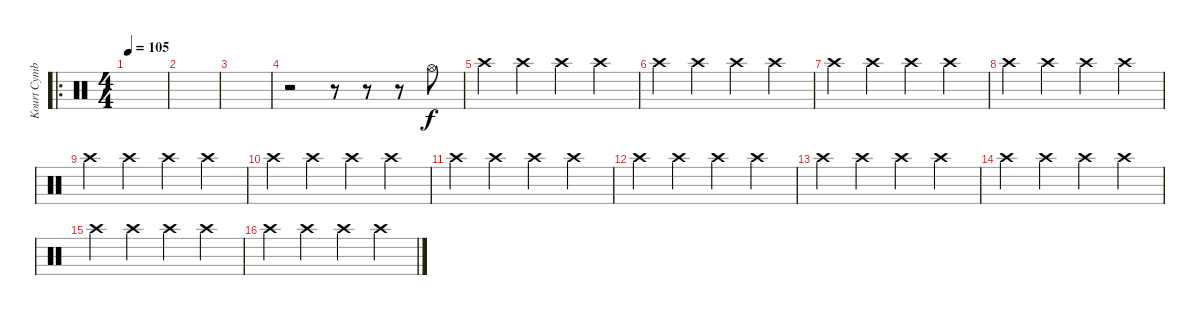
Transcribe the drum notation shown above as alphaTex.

\track ("Kourt Cymbales" "Kourt Cymb") {instrument percussion}
\staff {score}
\articulation defaults
\ro
\ts (4 4)
\tempo 105
\clef neutral
\ks c
|
|
|
r.2 r.8 r.8 r.8 "Hi-Hat (open)".8 |
"Crash high (hit)".4 "Crash high (hit)".4 "Crash high (hit)".4 "Crash high (hit)".4 |
"Crash high (hit)".4 "Crash high (hit)".4 "Crash high (hit)".4 "Crash high (hit)".4 |
"Crash high (hit)".4 "Crash high (hit)".4 "Crash high (hit)".4 "Crash high (hit)".4 |
"Crash high (hit)".4 "Crash high (hit)".4 "Crash high (hit)".4 "Crash high (hit)".4 |
"Crash high (hit)".4 "Crash high (hit)".4 "Crash high (hit)".4 "Crash high (hit)".4 |
"Crash high (hit)".4 "Crash high (hit)".4 "Crash high (hit)".4 "Crash high (hit)".4 |
"Crash high (hit)".4 "Crash high (hit)".4 "Crash high (hit)".4 "Crash high (hit)".4 |
"Crash high (hit)".4 "Crash high (hit)".4 "Crash high (hit)".4 "Crash high (hit)".4 |
"Crash high (hit)".4 "Crash high (hit)".4 "Crash high (hit)".4 "Crash high (hit)".4 |
"Crash high (hit)".4 "Crash high (hit)".4 "Crash high (hit)".4 "Crash high (hit)".4 |
"Crash high (hit)".4 "Crash high (hit)".4 "Crash high (hit)".4 "Crash high (hit)".4 |
"Crash high (hit)".4 "Crash high (hit)".4 "Crash high (hit)".4 "Crash high (hit)".4
